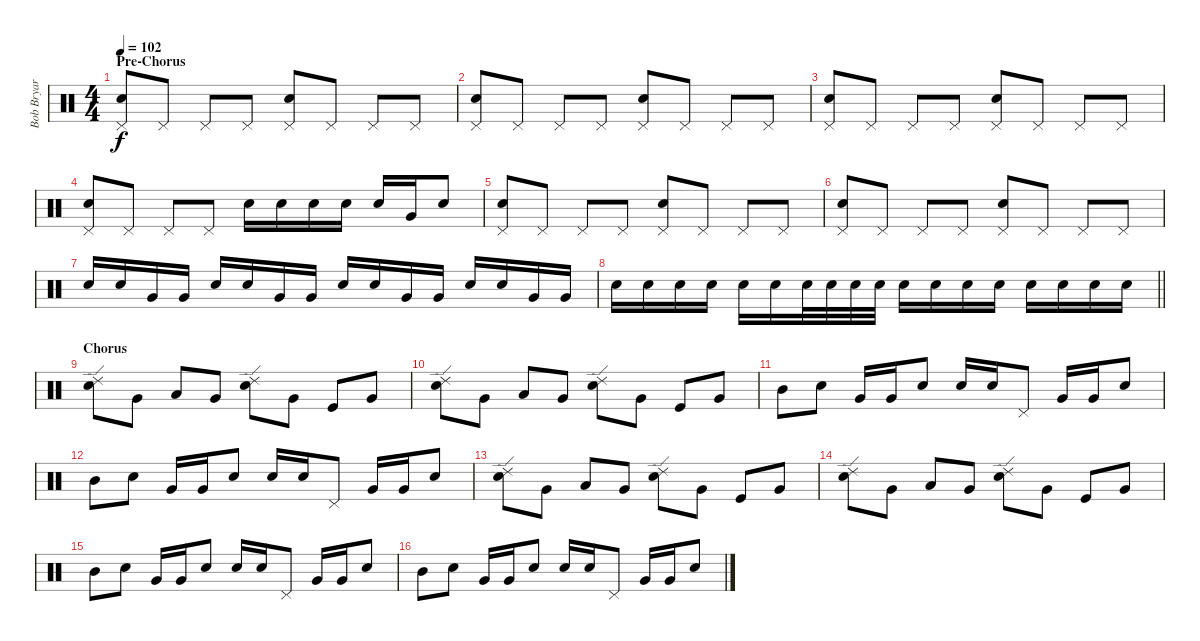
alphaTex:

\track ("Bob Bryar" "Bob Bryar") {instrument percussion}
\staff {score}
\articulation defaults
\ts (4 4)
\section ("" "Pre-Chorus")
\tempo 102
\clef neutral
\ks c
("Pedal Hi-Hat (hit)" "Electric Snare (hit)").8{dy f} "Pedal Hi-Hat (hit)".8 "Pedal Hi-Hat (hit)".8 "Pedal Hi-Hat (hit)".8 ("Pedal Hi-Hat (hit)" "Electric Snare (hit)").8 "Pedal Hi-Hat (hit)".8 "Pedal Hi-Hat (hit)".8 "Pedal Hi-Hat (hit)".8 |
("Pedal Hi-Hat (hit)" "Electric Snare (hit)").8 "Pedal Hi-Hat (hit)".8 "Pedal Hi-Hat (hit)".8 "Pedal Hi-Hat (hit)".8 ("Pedal Hi-Hat (hit)" "Electric Snare (hit)").8 "Pedal Hi-Hat (hit)".8 "Pedal Hi-Hat (hit)".8 "Pedal Hi-Hat (hit)".8 |
("Pedal Hi-Hat (hit)" "Electric Snare (hit)").8 "Pedal Hi-Hat (hit)".8 "Pedal Hi-Hat (hit)".8 "Pedal Hi-Hat (hit)".8 ("Pedal Hi-Hat (hit)" "Electric Snare (hit)").8 "Pedal Hi-Hat (hit)".8 "Pedal Hi-Hat (hit)".8 "Pedal Hi-Hat (hit)".8 |
("Pedal Hi-Hat (hit)" "Electric Snare (hit)").8 "Pedal Hi-Hat (hit)".8 "Pedal Hi-Hat (hit)".8 "Pedal Hi-Hat (hit)".8 "Electric Snare (hit)".16 "Electric Snare (hit)".16 "Electric Snare (hit)".16 "Electric Snare (hit)".16 "Electric Snare (hit)".16 "Very Low Tom (hit)".16 "Electric Snare (hit)".8 |
("Pedal Hi-Hat (hit)" "Electric Snare (hit)").8 "Pedal Hi-Hat (hit)".8 "Pedal Hi-Hat (hit)".8 "Pedal Hi-Hat (hit)".8 ("Pedal Hi-Hat (hit)" "Electric Snare (hit)").8 "Pedal Hi-Hat (hit)".8 "Pedal Hi-Hat (hit)".8 "Pedal Hi-Hat (hit)".8 |
("Pedal Hi-Hat (hit)" "Electric Snare (hit)").8 "Pedal Hi-Hat (hit)".8 "Pedal Hi-Hat (hit)".8 "Pedal Hi-Hat (hit)".8 ("Pedal Hi-Hat (hit)" "Electric Snare (hit)").8 "Pedal Hi-Hat (hit)".8 "Pedal Hi-Hat (hit)".8 "Pedal Hi-Hat (hit)".8 |
"Electric Snare (hit)".16 "Electric Snare (hit)".16 "Very Low Tom (hit)".16 "Very Low Tom (hit)".16 "Electric Snare (hit)".16 "Electric Snare (hit)".16 "Very Low Tom (hit)".16 "Very Low Tom (hit)".16 "Electric Snare (hit)".16 "Electric Snare (hit)".16 "Very Low Tom (hit)".16 "Very Low Tom (hit)".16 "Electric Snare (hit)".16 "Electric Snare (hit)".16 "Very Low Tom (hit)".16 "Very Low Tom (hit)".16 |
\barLineRight lightlight "Electric Snare (hit)".16 "Electric Snare (hit)".16 "Electric Snare (hit)".16 "Electric Snare (hit)".16 "Electric Snare (hit)".16 "Electric Snare (hit)".16 "Electric Snare (hit)".32 "Electric Snare (hit)".32 "Electric Snare (hit)".32 "Electric Snare (hit)".32 "Electric Snare (hit)".16 "Electric Snare (hit)".16 "Electric Snare (hit)".16 "Electric Snare (hit)".16 "Electric Snare (hit)".16 "Electric Snare (hit)".16 "Electric Snare (hit)".16 "Electric Snare (hit)".16
|
\section ("" "Chorus")
("Ride (edge) 2" "Electric Snare (hit)").8 "Very Low Tom (hit)".8 "Low Tom (hit)".8 "Very Low Tom (hit)".8 ("Ride (edge) 2" "Electric Snare (hit)").8 "Very Low Tom (hit)".8 "Kick (hit)".8 "Very Low Tom (hit)".8 |
("Ride (edge) 2" "Electric Snare (hit)").8 "Very Low Tom (hit)".8 "Low Tom (hit)".8 "Very Low Tom (hit)".8 ("Ride (edge) 2" "Electric Snare (hit)").8 "Very Low Tom (hit)".8 "Kick (hit)".8 "Very Low Tom (hit)".8 |
"Mid Tom (hit)".8 "Electric Snare (hit)".8 "Very Low Tom (hit)".16 "Very Low Tom (hit)".16 "Electric Snare (hit)".8 "Electric Snare (hit)".16 "Electric Snare (hit)".16 "Pedal Hi-Hat (hit)".8 "Very Low Tom (hit)".16 "Very Low Tom (hit)".16 "Electric Snare (hit)".8 |
"Mid Tom (hit)".8 "Electric Snare (hit)".8 "Very Low Tom (hit)".16 "Very Low Tom (hit)".16 "Electric Snare (hit)".8 "Electric Snare (hit)".16 "Electric Snare (hit)".16 "Pedal Hi-Hat (hit)".8 "Very Low Tom (hit)".16 "Very Low Tom (hit)".16 "Electric Snare (hit)".8 |
("Ride (edge) 2" "Electric Snare (hit)").8 "Very Low Tom (hit)".8 "Low Tom (hit)".8 "Very Low Tom (hit)".8 ("Ride (edge) 2" "Electric Snare (hit)").8 "Very Low Tom (hit)".8 "Kick (hit)".8 "Very Low Tom (hit)".8 |
("Ride (edge) 2" "Electric Snare (hit)").8 "Very Low Tom (hit)".8 "Low Tom (hit)".8 "Very Low Tom (hit)".8 ("Ride (edge) 2" "Electric Snare (hit)").8 "Very Low Tom (hit)".8 "Kick (hit)".8 "Very Low Tom (hit)".8 |
"Mid Tom (hit)".8 "Electric Snare (hit)".8 "Very Low Tom (hit)".16 "Very Low Tom (hit)".16 "Electric Snare (hit)".8 "Electric Snare (hit)".16 "Electric Snare (hit)".16 "Pedal Hi-Hat (hit)".8 "Very Low Tom (hit)".16 "Very Low Tom (hit)".16 "Electric Snare (hit)".8 |
"Mid Tom (hit)".8 "Electric Snare (hit)".8 "Very Low Tom (hit)".16 "Very Low Tom (hit)".16 "Electric Snare (hit)".8 "Electric Snare (hit)".16 "Electric Snare (hit)".16 "Pedal Hi-Hat (hit)".8 "Very Low Tom (hit)".16 "Very Low Tom (hit)".16 "Electric Snare (hit)".8
